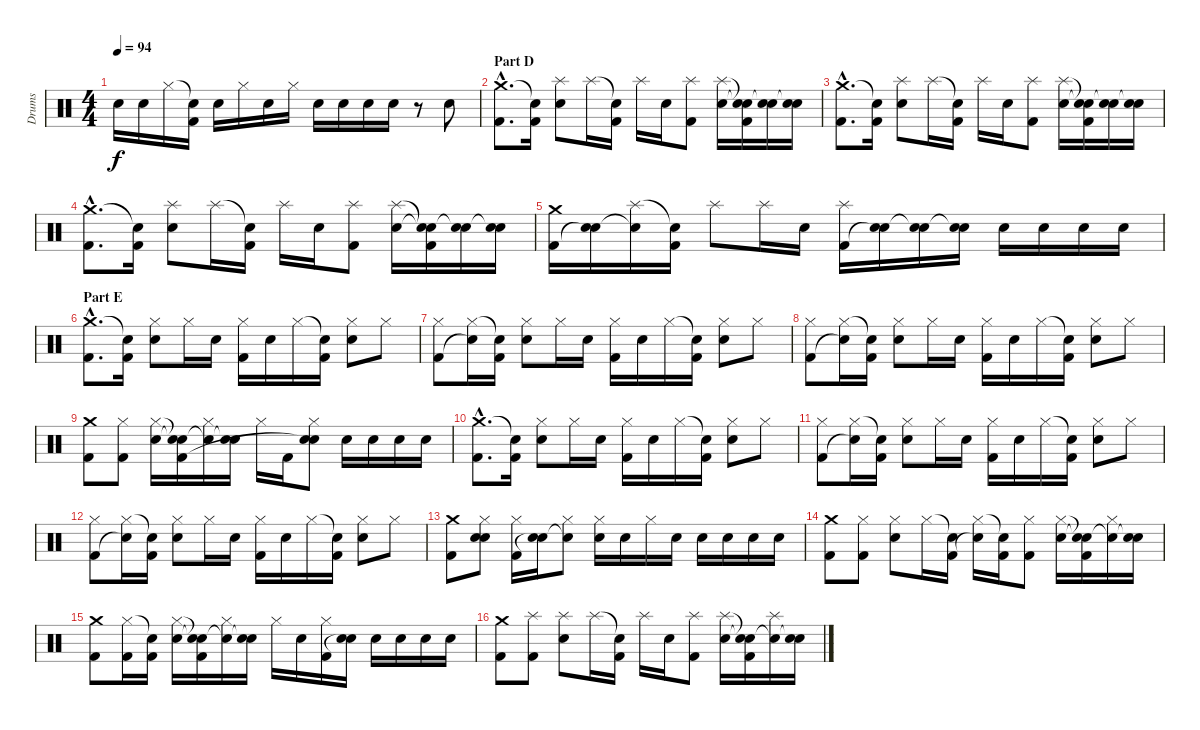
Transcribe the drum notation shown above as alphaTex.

\track ("Drums" "Drums") {instrument percussion}
\staff {score}
\articulation defaults
\ts (4 4)
\tempo 94
\clef neutral
\ks c "Electric Snare (hit)".16{dy f} "Electric Snare (hit)".16 "Hi-Hat (closed)".16
("Snare (hit)"{t} "Kick (hit) 2").16 "Electric Snare (hit)".16 "Hi-Hat (closed)".16 "Electric Snare (hit)".16 "Hi-Hat (closed)".16 "Electric Snare (hit)".16 "Electric Snare (hit)".16 "Electric Snare (hit)".16 "Electric Snare (hit)".16 r.8 "Electric Snare (hit)".8 |
\section ("" "Part D")
("Crash medium (hit)"{hac} "Kick (hit) 2"{hac}).8{d} ("Snare (hit)"{t} "Kick (hit) 2").16 ("Splash (hit)" "Electric Snare (hit)").8 "Splash (hit)".16 ("Snare (hit)"{t} "Kick (hit) 2").16 "Splash (hit)".16 "Electric Snare (hit)".16 ("Splash (hit)" "Kick (hit) 2").8 ("Splash (hit)" "Electric Snare (hit)").16 ("Snare (hit)"{t} "Snare (hit)"{t} "Kick (hit) 2").16 ("Electric Snare (hit)" "Snare (hit)"{t}).16 ("Electric Snare (hit)" "Snare (hit)"{t}).16 |
("Crash medium (hit)"{hac} "Kick (hit) 2"{hac}).8{d} ("Snare (hit)"{t} "Kick (hit) 2").16 ("Splash (hit)" "Electric Snare (hit)").8 "Splash (hit)".16 ("Snare (hit)"{t} "Kick (hit) 2").16 "Splash (hit)".16 "Electric Snare (hit)".16 ("Splash (hit)" "Kick (hit) 2").8 ("Splash (hit)" "Electric Snare (hit)").16 ("Snare (hit)"{t} "Snare (hit)"{t} "Kick (hit) 2").16 ("Electric Snare (hit)" "Snare (hit)"{t}).16 ("Electric Snare (hit)" "Snare (hit)"{t}).16 |
("Crash medium (hit)"{hac} "Kick (hit) 2"{hac}).8{d} ("Snare (hit)"{t} "Kick (hit) 2").16 ("Splash (hit)" "Electric Snare (hit)").8 "Splash (hit)".16 ("Snare (hit)"{t} "Kick (hit) 2").16 "Splash (hit)".16 "Electric Snare (hit)".16 ("Splash (hit)" "Kick (hit) 2").8 ("Splash (hit)" "Electric Snare (hit)").16 ("Snare (hit)"{t} "Snare (hit)"{t} "Kick (hit) 2").16 ("Electric Snare (hit)" "Snare (hit)"{t}).16 ("Electric Snare (hit)" "Snare (hit)"{t}).16 |
("Crash medium (hit)" "Kick (hit) 2").16 ("Electric Snare (hit)" "Snare (hit)"{t}).16 ("Splash (hit)" "Snare (hit)"{t}).16 ("Snare (hit)"{t} "Kick (hit) 2").16 "Splash (hit)".8 "Splash (hit)".16 "Electric Snare (hit)".16 ("Splash (hit)" "Kick (hit) 2").16 ("Electric Snare (hit)" "Snare (hit)"{t}).16 ("Electric Snare (hit)" "Snare (hit)"{t}).16 ("Electric Snare (hit)" "Snare (hit)"{t}).16 "Electric Snare (hit)".16 "Electric Snare (hit)".16 "Electric Snare (hit)".16 "Electric Snare (hit)".16 |
\section ("" "Part E")
("Crash medium (hit)"{hac} "Kick (hit) 2"{hac}).8{d} ("Snare (hit)"{t} "Kick (hit) 2").16 ("Hi-Hat (closed)" "Electric Snare (hit)").8 "Hi-Hat (closed)".16 "Electric Snare (hit)".16 ("Hi-Hat (closed)" "Kick (hit) 2").16 "Electric Snare (hit)".16 "Hi-Hat (closed)".16 ("Snare (hit)"{t} "Kick (hit) 2").16 ("Hi-Hat (closed)" "Electric Snare (hit)").8 "Hi-Hat (closed)".8 |
("Hi-Hat (closed)" "Kick (hit) 2").8 ("Hi-Hat (closed)" "Snare (hit)"{t}).16 ("Snare (hit)"{t} "Kick (hit) 2").16 ("Hi-Hat (closed)" "Electric Snare (hit)").8 "Hi-Hat (closed)".16 "Electric Snare (hit)".16 ("Hi-Hat (closed)" "Kick (hit) 2").16 "Electric Snare (hit)".16 "Hi-Hat (closed)".16 ("Snare (hit)"{t} "Kick (hit) 2").16 ("Hi-Hat (closed)" "Electric Snare (hit)").8 "Hi-Hat (closed)".8 |
("Hi-Hat (closed)" "Kick (hit) 2").8 ("Hi-Hat (closed)" "Snare (hit)"{t}).16 ("Snare (hit)"{t} "Kick (hit) 2").16 ("Hi-Hat (closed)" "Electric Snare (hit)").8 "Hi-Hat (closed)".16 "Electric Snare (hit)".16 ("Hi-Hat (closed)" "Kick (hit) 2").16 "Electric Snare (hit)".16 "Hi-Hat (closed)".16 ("Snare (hit)"{t} "Kick (hit) 2").16 ("Hi-Hat (closed)" "Electric Snare (hit)").8 "Hi-Hat (closed)".8 |
("Crash medium (hit)" "Kick (hit) 2").8 ("Hi-Hat (closed)" "Kick (hit) 2").8 ("Hi-Hat (closed)" "Electric Snare (hit)").16 ("Snare (hit)"{t} "Snare (hit)"{t} "Kick (hit) 2").16 ("Hi-Hat (closed)" "Snare (hit)"{t}).16 ("Electric Snare (hit)" "Snare (hit)"{t}).16 "Hi-Hat (closed)".16 "Kick (hit) 2".16 ("Hi-Hat (closed)" "Electric Snare (hit)" "Snare (hit)"{t}).8 "Electric Snare (hit)".16 "Electric Snare (hit)".16 "Electric Snare (hit)".16 "Electric Snare (hit)".16 |
("Crash medium (hit)"{hac} "Kick (hit) 2"{hac}).8{d} ("Snare (hit)"{t} "Kick (hit) 2").16 ("Hi-Hat (closed)" "Electric Snare (hit)").8 "Hi-Hat (closed)".16 "Electric Snare (hit)".16 ("Hi-Hat (closed)" "Kick (hit) 2").16 "Electric Snare (hit)".16 "Hi-Hat (closed)".16 ("Snare (hit)"{t} "Kick (hit) 2").16 ("Hi-Hat (closed)" "Electric Snare (hit)").8 "Hi-Hat (closed)".8 |
("Hi-Hat (closed)" "Kick (hit) 2").8 ("Hi-Hat (closed)" "Snare (hit)"{t}).16 ("Snare (hit)"{t} "Kick (hit) 2").16 ("Hi-Hat (closed)" "Electric Snare (hit)").8 "Hi-Hat (closed)".16 "Electric Snare (hit)".16 ("Hi-Hat (closed)" "Kick (hit) 2").16 "Electric Snare (hit)".16 "Hi-Hat (closed)".16 ("Snare (hit)"{t} "Kick (hit) 2").16 ("Hi-Hat (closed)" "Electric Snare (hit)").8 "Hi-Hat (closed)".8 |
("Hi-Hat (closed)" "Kick (hit) 2").8 ("Hi-Hat (closed)" "Snare (hit)"{t}).16 ("Snare (hit)"{t} "Kick (hit) 2").16 ("Hi-Hat (closed)" "Electric Snare (hit)").8 "Hi-Hat (closed)".16 "Electric Snare (hit)".16 ("Hi-Hat (closed)" "Kick (hit) 2").16 "Electric Snare (hit)".16 "Hi-Hat (closed)".16 ("Snare (hit)"{t} "Kick (hit) 2").16 ("Hi-Hat (closed)" "Electric Snare (hit)").8 "Hi-Hat (closed)".8 |
("Crash medium (hit)" "Kick (hit) 2").8 ("Hi-Hat (closed)" "Electric Snare (hit)" "Snare (hit)").8 ("Hi-Hat (closed)" "Kick (hit) 2").16 ("Electric Snare (hit)" "Snare (hit)"{t}).16 ("Hi-Hat (closed)" "Snare (hit)"{t}).8 ("Hi-Hat (closed)" "Electric Snare (hit)").16 "Electric Snare (hit)".16 "Hi-Hat (closed)".16 "Electric Snare (hit)".16 "Electric Snare (hit)".16 "Electric Snare (hit)".16 "Electric Snare (hit)".16 "Electric Snare (hit)".16 |
("Crash medium (hit)" "Kick (hit) 2").8 ("Hi-Hat (closed)" "Kick (hit) 2").8 ("Hi-Hat (closed)" "Electric Snare (hit)").8 "Hi-Hat (closed)".16 ("Snare (hit)"{t} "Kick (hit) 2").16 ("Hi-Hat (closed)" "Snare (hit)"{t}).16 ("Snare (hit)"{t} "Kick (hit) 2").16 ("Hi-Hat (closed)" "Kick (hit) 2").8 ("Hi-Hat (closed)" "Electric Snare (hit)").16 ("Snare (hit)"{t} "Snare (hit)"{t} "Kick (hit) 2").16 ("Hi-Hat (closed)" "Snare (hit)"{t}).16 ("Electric Snare (hit)" "Snare (hit)"{t}).16 |
("Crash medium (hit)" "Kick (hit) 2").8 ("Hi-Hat (closed)" "Kick (hit) 2").16 ("Snare (hit)"{t} "Kick (hit) 2").16 ("Hi-Hat (closed)" "Electric Snare (hit)").16 ("Snare (hit)"{t} "Snare (hit)"{t} "Kick (hit) 2").16 ("Hi-Hat (closed)" "Snare (hit)"{t}).16 ("Electric Snare (hit)" "Snare (hit)"{t}).16 "Hi-Hat (closed)".16 "Electric Snare (hit)".16 ("Hi-Hat (closed)" "Kick (hit) 2").16 ("Electric Snare (hit)" "Snare (hit)"{t}).16 "Electric Snare (hit)".16 "Electric Snare (hit)".16 "Electric Snare (hit)".16 "Electric Snare (hit)".16 |
("Crash medium (hit)" "Kick (hit) 2").8 ("Splash (hit)" "Kick (hit) 2").8 ("Splash (hit)" "Electric Snare (hit)").8 "Splash (hit)".16 ("Snare (hit)"{t} "Kick (hit) 2").16 "Splash (hit)".16 "Electric Snare (hit)".16 ("Splash (hit)" "Kick (hit) 2").8 ("Splash (hit)" "Electric Snare (hit)").16 ("Snare (hit)"{t} "Snare (hit)"{t} "Kick (hit) 2").16 ("Splash (hit)" "Snare (hit)"{t}).16 ("Electric Snare (hit)" "Snare (hit)"{t}).16
